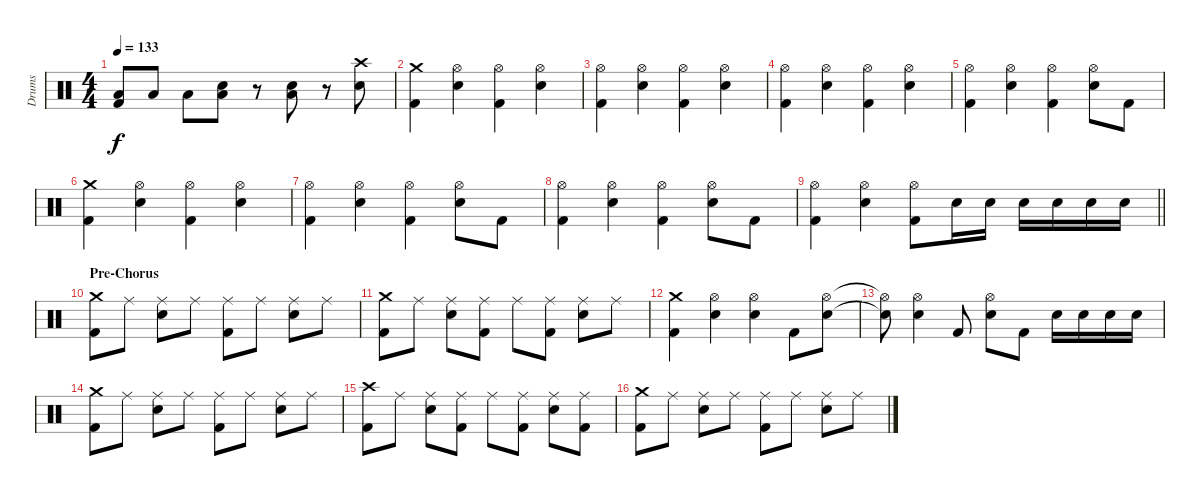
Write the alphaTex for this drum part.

\track ("Drums" "Drums") {instrument percussion}
\staff {score}
\articulation defaults
\ts (4 4)
\tempo 133
\clef neutral
\ks c
("Low Floor Tom (hit)" "Kick (hit) 2").8{dy f} "Low Floor Tom (hit)".8 "Low Floor Tom (hit)".8 ("Low Floor Tom (hit)" "Snare (hit) 2").8 r.8 ("Low Floor Tom (hit)" "Snare (hit) 2").8 r.8 ("Crash high (hit)" "Snare (hit) 2").8 |
("Crash medium (hit)" "Kick (hit) 2").4 ("Hi-Hat (open)" "Snare (hit) 2").4 ("Hi-Hat (open)" "Kick (hit) 2").4 ("Hi-Hat (open)" "Snare (hit) 2").4 |
("Hi-Hat (open)" "Kick (hit) 2").4 ("Hi-Hat (open)" "Snare (hit) 2").4 ("Hi-Hat (open)" "Kick (hit) 2").4 ("Hi-Hat (open)" "Snare (hit) 2").4 |
("Hi-Hat (open)" "Kick (hit) 2").4 ("Hi-Hat (open)" "Snare (hit) 2").4 ("Hi-Hat (open)" "Kick (hit) 2").4 ("Hi-Hat (open)" "Snare (hit) 2").4 |
("Hi-Hat (open)" "Kick (hit) 2").4 ("Hi-Hat (open)" "Snare (hit) 2").4 ("Hi-Hat (open)" "Kick (hit) 2").4 ("Hi-Hat (open)" "Snare (hit) 2").8 "Kick (hit) 2".8 |
("Crash medium (hit)" "Kick (hit) 2").4 ("Hi-Hat (open)" "Snare (hit) 2").4 ("Hi-Hat (open)" "Kick (hit) 2").4 ("Hi-Hat (open)" "Snare (hit) 2").4 |
("Hi-Hat (open)" "Kick (hit) 2").4 ("Hi-Hat (open)" "Snare (hit) 2").4 ("Hi-Hat (open)" "Kick (hit) 2").4 ("Hi-Hat (open)" "Snare (hit) 2").8 "Kick (hit) 2".8 |
("Hi-Hat (open)" "Kick (hit) 2").4 ("Hi-Hat (open)" "Snare (hit) 2").4 ("Hi-Hat (open)" "Kick (hit) 2").4 ("Hi-Hat (open)" "Snare (hit) 2").8 "Kick (hit) 2".8 |
\barLineRight lightlight
("Hi-Hat (open)" "Kick (hit) 2").4 ("Hi-Hat (open)" "Snare (hit) 2").4 ("Hi-Hat (open)" "Kick (hit) 2").8 "Snare (hit) 2".16 "Snare (hit) 2".16 "Snare (hit) 2".16 "Snare (hit) 2".16 "Snare (hit) 2".16 "Snare (hit) 2".16 |
\section ("" "Pre-Chorus")
("Crash medium (hit)" "Kick (hit) 2").8 "Ride (middle)".8 ("Ride (middle)" "Snare (hit) 2").8 "Ride (middle)".8 ("Ride (middle)" "Kick (hit) 2").8 "Ride (middle)".8 ("Ride (middle)" "Snare (hit) 2").8 "Ride (middle)".8 |
("Crash medium (hit)" "Kick (hit) 2").8 "Ride (middle)".8 ("Ride (middle)" "Snare (hit) 2").8 ("Ride (middle)" "Kick (hit) 2").8 "Ride (middle)".8 ("Ride (middle)" "Kick (hit) 2").8 ("Ride (middle)" "Snare (hit) 2").8 "Ride (middle)".8 |
("Crash medium (hit)" "Kick (hit) 2").4 ("Hi-Hat (open)" "Snare (hit) 2").4 ("Hi-Hat (open)" "Snare (hit) 2").4 "Kick (hit) 2".8 ("Hi-Hat (open)" "Snare (hit) 2").8 |
("Hi-Hat (open)"{t} "Snare (hit) 2"{t}).8 ("Hi-Hat (open)" "Snare (hit) 2").4 "Kick (hit) 2".8 ("Hi-Hat (open)" "Snare (hit) 2").8 "Kick (hit) 2".8 "Snare (hit) 2".16 "Snare (hit) 2".16 "Snare (hit) 2".16 "Snare (hit) 2".16 |
("Crash medium (hit)" "Kick (hit) 2").8 "Ride (middle)".8 ("Ride (middle)" "Snare (hit) 2").8 "Ride (middle)".8 ("Ride (middle)" "Kick (hit) 2").8 "Ride (middle)".8 ("Ride (middle)" "Snare (hit) 2").8 "Ride (middle)".8 |
("Crash high (hit)" "Kick (hit) 2").8 "Ride (middle)".8 ("Ride (middle)" "Snare (hit) 2").8 ("Ride (middle)" "Kick (hit) 2").8 "Ride (middle)".8 ("Ride (middle)" "Kick (hit) 2").8 ("Ride (middle)" "Snare (hit) 2").8 ("Ride (middle)" "Kick (hit) 2").8 |
("Crash medium (hit)" "Kick (hit) 2").8 "Ride (middle)".8 ("Ride (middle)" "Snare (hit) 2").8 "Ride (middle)".8 ("Ride (middle)" "Kick (hit) 2").8 "Ride (middle)".8 ("Ride (middle)" "Snare (hit) 2").8 "Ride (middle)".8
